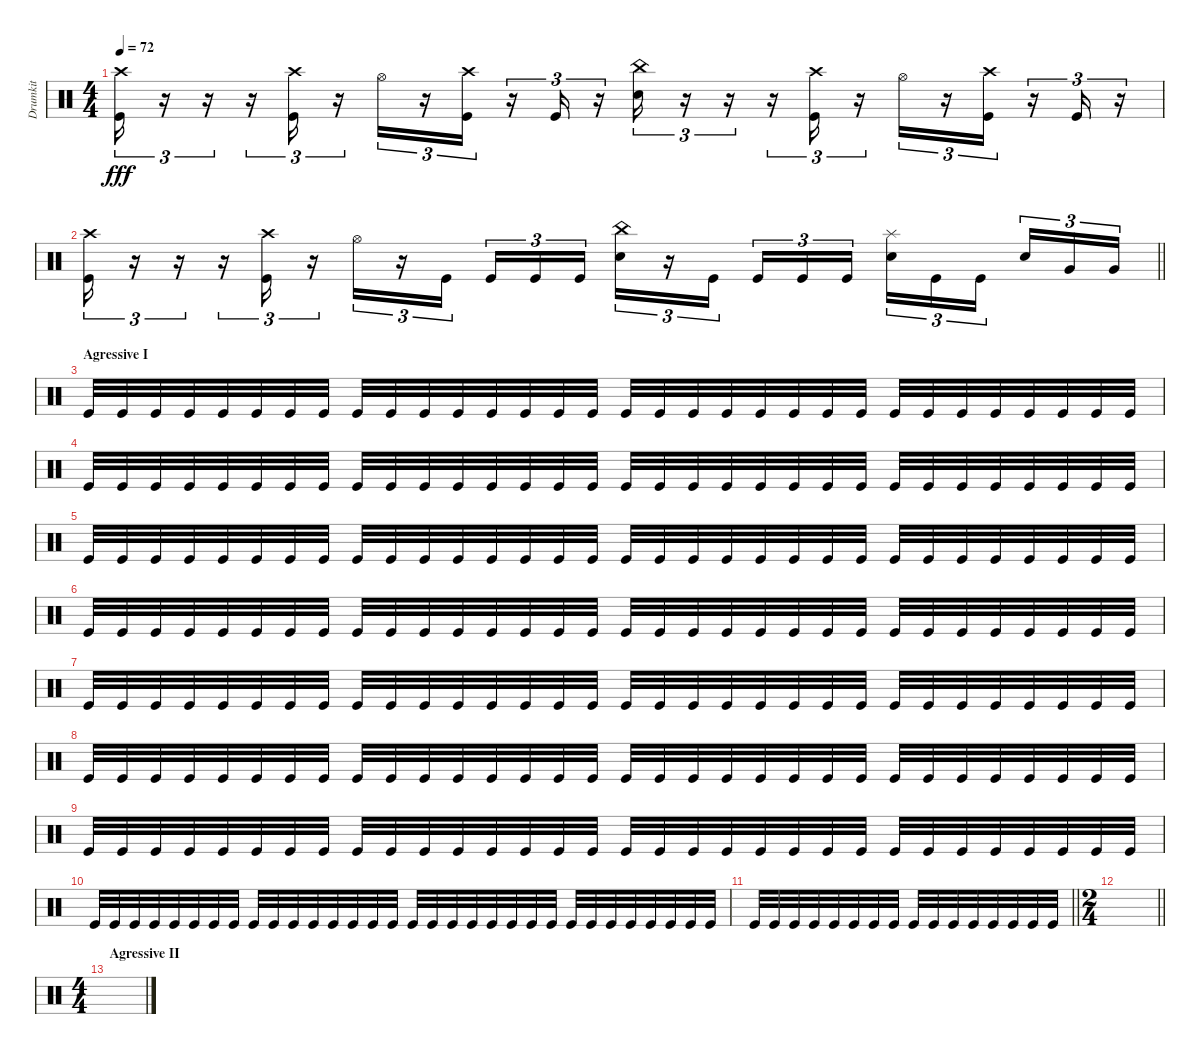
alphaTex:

\track ("Drumkit" "Drumkit") {instrument percussion}
\staff {score}
\articulation defaults
\ts (4 4)
\tempo 72
\clef neutral
\ks c
("Kick (hit)" "Crash high (hit)").16{tu (3 2) dy fff} r.16{tu (3 2)} r.16{tu (3 2)} r.16{tu (3 2)} ("Kick (hit)" "Crash high (hit)").16{tu (3 2)} r.16{tu (3 2)} "Hi-Hat (open)".16{tu (3 2)} r.16{tu (3 2)} ("Kick (hit)" "Crash high (hit)").16{tu (3 2)} r.16{tu (3 2)} "Kick (hit)".16{tu (3 2)} r.16{tu (3 2)} ("Snare (hit) 2" "China (hit)").16{tu (3 2)} r.16{tu (3 2)} r.16{tu (3 2)} r.16{tu (3 2)} ("Kick (hit)" "Crash high (hit)").16{tu (3 2)} r.16{tu (3 2)} "Hi-Hat (open)".16{tu (3 2)} r.16{tu (3 2)} ("Kick (hit)" "Crash high (hit)").16{tu (3 2)} r.16{tu (3 2)} "Kick (hit)".16{tu (3 2)} r.16{tu (3 2)} |
\barLineRight lightlight
("Kick (hit)" "Crash high (hit)").16{tu (3 2)} r.16{tu (3 2)} r.16{tu (3 2)} r.16{tu (3 2)} ("Kick (hit)" "Crash high (hit)").16{tu (3 2)} r.16{tu (3 2)} "Hi-Hat (open)".16{tu (3 2)} r.16{tu (3 2)} "Kick (hit)".16{tu (3 2) beam splitsecondary} "Kick (hit)".16{tu (3 2)} "Kick (hit)".16{tu (3 2)} "Kick (hit)".16{tu (3 2)} ("Snare (hit) 2" "China (hit)").16{tu (3 2)} r.16{tu (3 2)} "Kick (hit)".16{tu (3 2) beam splitsecondary} "Kick (hit)".16{tu (3 2)} "Kick (hit)".16{tu (3 2)} "Kick (hit)".16{tu (3 2)} ("Snare (hit) 2" "Splash (hit)").16{tu (3 2)} "Kick (hit)".16{tu (3 2)} "Kick (hit)".16{tu (3 2) beam splitsecondary} "Snare (hit) 2".16{tu (3 2)} "Very Low Tom (hit)".16{tu (3 2)} "Very Low Tom (hit)".16{tu (3 2)} |
\section ("" "Agressive I")
"Kick (hit)".32 "Kick (hit)".32 "Kick (hit)".32 "Kick (hit)".32 "Kick (hit)".32 "Kick (hit)".32 "Kick (hit)".32 "Kick (hit)".32 "Kick (hit)".32 "Kick (hit)".32 "Kick (hit)".32 "Kick (hit)".32 "Kick (hit)".32 "Kick (hit)".32 "Kick (hit)".32 "Kick (hit)".32 "Kick (hit)".32 "Kick (hit)".32 "Kick (hit)".32 "Kick (hit)".32 "Kick (hit)".32 "Kick (hit)".32 "Kick (hit)".32 "Kick (hit)".32 "Kick (hit)".32 "Kick (hit)".32 "Kick (hit)".32 "Kick (hit)".32 "Kick (hit)".32 "Kick (hit)".32 "Kick (hit)".32 "Kick (hit)".32 |
"Kick (hit)".32 "Kick (hit)".32 "Kick (hit)".32 "Kick (hit)".32 "Kick (hit)".32 "Kick (hit)".32 "Kick (hit)".32 "Kick (hit)".32 "Kick (hit)".32 "Kick (hit)".32 "Kick (hit)".32 "Kick (hit)".32 "Kick (hit)".32 "Kick (hit)".32 "Kick (hit)".32 "Kick (hit)".32 "Kick (hit)".32 "Kick (hit)".32 "Kick (hit)".32 "Kick (hit)".32 "Kick (hit)".32 "Kick (hit)".32 "Kick (hit)".32 "Kick (hit)".32 "Kick (hit)".32 "Kick (hit)".32 "Kick (hit)".32 "Kick (hit)".32 "Kick (hit)".32 "Kick (hit)".32 "Kick (hit)".32 "Kick (hit)".32 |
"Kick (hit)".32 "Kick (hit)".32 "Kick (hit)".32 "Kick (hit)".32 "Kick (hit)".32 "Kick (hit)".32 "Kick (hit)".32 "Kick (hit)".32 "Kick (hit)".32 "Kick (hit)".32 "Kick (hit)".32 "Kick (hit)".32 "Kick (hit)".32 "Kick (hit)".32 "Kick (hit)".32 "Kick (hit)".32 "Kick (hit)".32 "Kick (hit)".32 "Kick (hit)".32 "Kick (hit)".32 "Kick (hit)".32 "Kick (hit)".32 "Kick (hit)".32 "Kick (hit)".32 "Kick (hit)".32 "Kick (hit)".32 "Kick (hit)".32 "Kick (hit)".32 "Kick (hit)".32 "Kick (hit)".32 "Kick (hit)".32 "Kick (hit)".32 |
"Kick (hit)".32 "Kick (hit)".32 "Kick (hit)".32 "Kick (hit)".32 "Kick (hit)".32 "Kick (hit)".32 "Kick (hit)".32 "Kick (hit)".32 "Kick (hit)".32 "Kick (hit)".32 "Kick (hit)".32 "Kick (hit)".32 "Kick (hit)".32 "Kick (hit)".32 "Kick (hit)".32 "Kick (hit)".32 "Kick (hit)".32 "Kick (hit)".32 "Kick (hit)".32 "Kick (hit)".32 "Kick (hit)".32 "Kick (hit)".32 "Kick (hit)".32 "Kick (hit)".32 "Kick (hit)".32 "Kick (hit)".32 "Kick (hit)".32 "Kick (hit)".32 "Kick (hit)".32 "Kick (hit)".32 "Kick (hit)".32 "Kick (hit)".32 |
"Kick (hit)".32 "Kick (hit)".32 "Kick (hit)".32 "Kick (hit)".32 "Kick (hit)".32 "Kick (hit)".32 "Kick (hit)".32 "Kick (hit)".32 "Kick (hit)".32 "Kick (hit)".32 "Kick (hit)".32 "Kick (hit)".32 "Kick (hit)".32 "Kick (hit)".32 "Kick (hit)".32 "Kick (hit)".32 "Kick (hit)".32 "Kick (hit)".32 "Kick (hit)".32 "Kick (hit)".32 "Kick (hit)".32 "Kick (hit)".32 "Kick (hit)".32 "Kick (hit)".32 "Kick (hit)".32 "Kick (hit)".32 "Kick (hit)".32 "Kick (hit)".32 "Kick (hit)".32 "Kick (hit)".32 "Kick (hit)".32 "Kick (hit)".32 |
"Kick (hit)".32 "Kick (hit)".32 "Kick (hit)".32 "Kick (hit)".32 "Kick (hit)".32 "Kick (hit)".32 "Kick (hit)".32 "Kick (hit)".32 "Kick (hit)".32 "Kick (hit)".32 "Kick (hit)".32 "Kick (hit)".32 "Kick (hit)".32 "Kick (hit)".32 "Kick (hit)".32 "Kick (hit)".32 "Kick (hit)".32 "Kick (hit)".32 "Kick (hit)".32 "Kick (hit)".32 "Kick (hit)".32 "Kick (hit)".32 "Kick (hit)".32 "Kick (hit)".32 "Kick (hit)".32 "Kick (hit)".32 "Kick (hit)".32 "Kick (hit)".32 "Kick (hit)".32 "Kick (hit)".32 "Kick (hit)".32 "Kick (hit)".32 |
"Kick (hit)".32 "Kick (hit)".32 "Kick (hit)".32 "Kick (hit)".32 "Kick (hit)".32 "Kick (hit)".32 "Kick (hit)".32 "Kick (hit)".32 "Kick (hit)".32 "Kick (hit)".32 "Kick (hit)".32 "Kick (hit)".32 "Kick (hit)".32 "Kick (hit)".32 "Kick (hit)".32 "Kick (hit)".32 "Kick (hit)".32 "Kick (hit)".32 "Kick (hit)".32 "Kick (hit)".32 "Kick (hit)".32 "Kick (hit)".32 "Kick (hit)".32 "Kick (hit)".32 "Kick (hit)".32 "Kick (hit)".32 "Kick (hit)".32 "Kick (hit)".32 "Kick (hit)".32 "Kick (hit)".32 "Kick (hit)".32 "Kick (hit)".32 |
"Kick (hit)".32 "Kick (hit)".32 "Kick (hit)".32 "Kick (hit)".32 "Kick (hit)".32 "Kick (hit)".32 "Kick (hit)".32 "Kick (hit)".32 "Kick (hit)".32 "Kick (hit)".32 "Kick (hit)".32 "Kick (hit)".32 "Kick (hit)".32 "Kick (hit)".32 "Kick (hit)".32 "Kick (hit)".32 "Kick (hit)".32 "Kick (hit)".32 "Kick (hit)".32 "Kick (hit)".32 "Kick (hit)".32 "Kick (hit)".32 "Kick (hit)".32 "Kick (hit)".32 "Kick (hit)".32 "Kick (hit)".32 "Kick (hit)".32 "Kick (hit)".32 "Kick (hit)".32 "Kick (hit)".32 "Kick (hit)".32 "Kick (hit)".32 |
\barLineRight lightlight "Kick (hit)".32 "Kick (hit)".32 "Kick (hit)".32 "Kick (hit)".32 "Kick (hit)".32 "Kick (hit)".32 "Kick (hit)".32 "Kick (hit)".32 "Kick (hit)".32 "Kick (hit)".32 "Kick (hit)".32 "Kick (hit)".32 "Kick (hit)".32 "Kick (hit)".32 "Kick (hit)".32 "Kick (hit)".32
|
\ts (2 4)
\barLineRight lightlight
|
\ts (4 4)
\section ("" "Agressive II")
